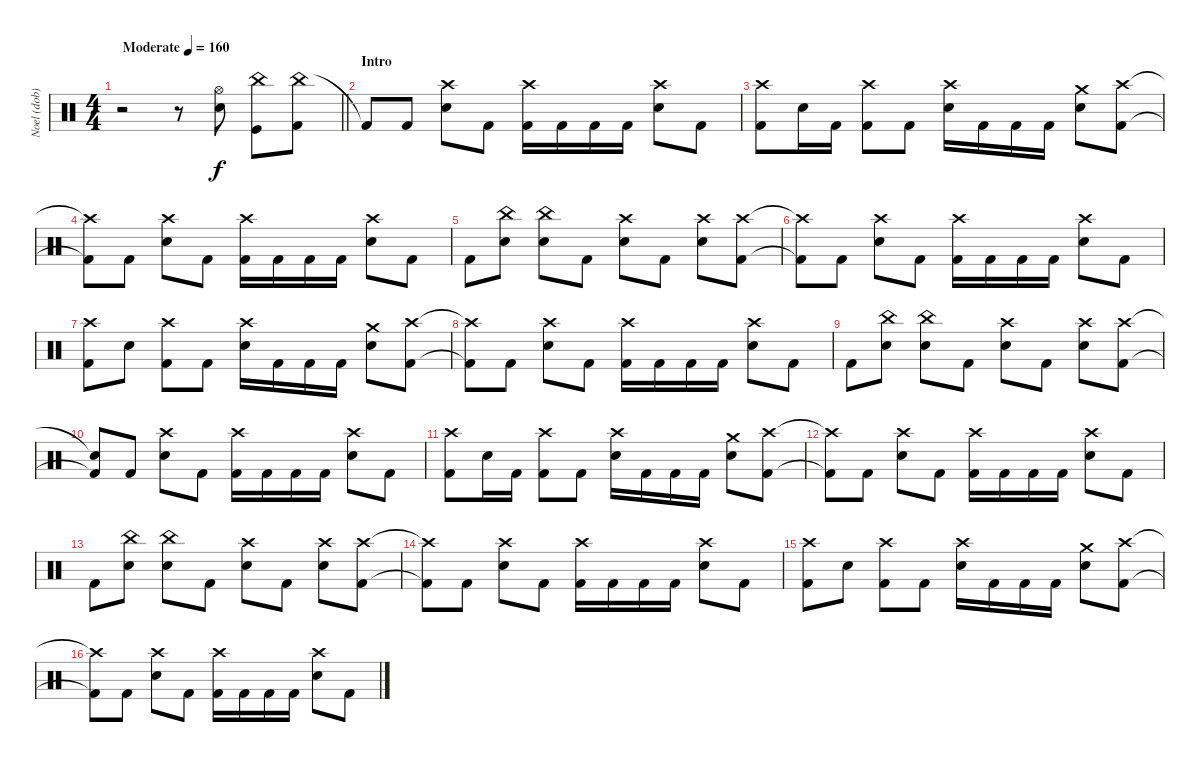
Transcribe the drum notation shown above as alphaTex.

\track ("Noel (dob)" "Noel (dob)") {instrument percussion}
\staff {score}
\articulation defaults
\ts (4 4)
\tempo (160 "Moderate")
\clef neutral
\barLineRight lightlight
\ks c
r.2{dy f} r.8 ("Snare (hit) 2" "Hi-Hat (open)").8 ("Kick (hit)" "China (hit)").8 ("China (hit)" "Kick (hit) 2").8 |
\section ("" "Intro")
"Kick (hit) 2"{t}.8 "Kick (hit) 2".8 ("Crash high (hit)" "Electric Snare (hit)").8 "Kick (hit) 2".8 ("Crash high (hit)" "Kick (hit) 2").16 "Kick (hit) 2".16 "Kick (hit) 2".16 "Kick (hit) 2".16 ("Crash high (hit)" "Electric Snare (hit)").8 "Kick (hit) 2".8 |
("Crash high (hit)" "Kick (hit) 2").8 "Electric Snare (hit)".16 "Kick (hit) 2".16 ("Crash high (hit)" "Kick (hit) 2").8 "Kick (hit) 2".8 ("Crash high (hit)" "Electric Snare (hit)").16 "Kick (hit) 2".16 "Kick (hit) 2".16 "Kick (hit) 2".16 ("Crash medium (hit)" "Electric Snare (hit)").8 ("Crash high (hit)" "Kick (hit) 2").8 |
("Crash high (hit)"{t} "Kick (hit) 2"{t}).8 "Kick (hit) 2".8 ("Crash high (hit)" "Electric Snare (hit)").8 "Kick (hit) 2".8 ("Crash high (hit)" "Kick (hit) 2").16 "Kick (hit) 2".16 "Kick (hit) 2".16 "Kick (hit) 2".16 ("Crash high (hit)" "Electric Snare (hit)").8 "Kick (hit) 2".8 |
"Kick (hit) 2".8 ("China (hit)" "Electric Snare (hit)").8 ("China (hit)" "Electric Snare (hit)").8 "Kick (hit) 2".8 ("Crash high (hit)" "Electric Snare (hit)").8 "Kick (hit) 2".8 ("Crash high (hit)" "Electric Snare (hit)").8 ("Crash high (hit)" "Kick (hit) 2").8 |
("Crash high (hit)"{t} "Kick (hit) 2"{t}).8 "Kick (hit) 2".8 ("Crash high (hit)" "Electric Snare (hit)").8 "Kick (hit) 2".8 ("Crash high (hit)" "Kick (hit) 2").16 "Kick (hit) 2".16 "Kick (hit) 2".16 "Kick (hit) 2".16 ("Crash high (hit)" "Electric Snare (hit)").8 "Kick (hit) 2".8 |
("Crash high (hit)" "Kick (hit) 2").8 "Electric Snare (hit)".8 ("Crash high (hit)" "Kick (hit) 2").8 "Kick (hit) 2".8 ("Crash high (hit)" "Electric Snare (hit)").16 "Kick (hit) 2".16 "Kick (hit) 2".16 "Kick (hit) 2".16 ("Crash medium (hit)" "Electric Snare (hit)").8 ("Crash high (hit)" "Kick (hit) 2").8 |
("Crash high (hit)"{t} "Kick (hit) 2"{t}).8 "Kick (hit) 2".8 ("Crash high (hit)" "Electric Snare (hit)").8 "Kick (hit) 2".8 ("Crash high (hit)" "Kick (hit) 2").16 "Kick (hit) 2".16 "Kick (hit) 2".16 "Kick (hit) 2".16 ("Crash high (hit)" "Electric Snare (hit)").8 "Kick (hit) 2".8 |
"Kick (hit) 2".8 ("Electric Snare (hit)" "China (hit)").8 ("Electric Snare (hit)" "China (hit)").8 "Kick (hit) 2".8 ("Crash high (hit)" "Electric Snare (hit)").8 "Kick (hit) 2".8 ("Crash high (hit)" "Electric Snare (hit)").8 ("Crash high (hit)" "Kick (hit) 2").8 |
("Snare (hit)"{t} "Kick (hit) 2"{t}).8 "Kick (hit) 2".8 ("Crash high (hit)" "Electric Snare (hit)").8 "Kick (hit) 2".8 ("Crash high (hit)" "Kick (hit) 2").16 "Kick (hit) 2".16 "Kick (hit) 2".16 "Kick (hit) 2".16 ("Crash high (hit)" "Electric Snare (hit)").8 "Kick (hit) 2".8 |
("Crash high (hit)" "Kick (hit) 2").8 "Electric Snare (hit)".16 "Kick (hit) 2".16 ("Crash high (hit)" "Kick (hit) 2").8 "Kick (hit) 2".8 ("Crash high (hit)" "Electric Snare (hit)").16 "Kick (hit) 2".16 "Kick (hit) 2".16 "Kick (hit) 2".16 ("Crash medium (hit)" "Electric Snare (hit)").8 ("Crash high (hit)" "Kick (hit) 2").8 |
("Crash high (hit)"{t} "Kick (hit) 2"{t}).8 "Kick (hit) 2".8 ("Crash high (hit)" "Electric Snare (hit)").8 "Kick (hit) 2".8 ("Crash high (hit)" "Kick (hit) 2").16 "Kick (hit) 2".16 "Kick (hit) 2".16 "Kick (hit) 2".16 ("Crash high (hit)" "Electric Snare (hit)").8 "Kick (hit) 2".8 |
"Kick (hit) 2".8 ("China (hit)" "Electric Snare (hit)").8 ("China (hit)" "Electric Snare (hit)").8 "Kick (hit) 2".8 ("Crash high (hit)" "Electric Snare (hit)").8 "Kick (hit) 2".8 ("Crash high (hit)" "Electric Snare (hit)").8 ("Crash high (hit)" "Kick (hit) 2").8 |
("Crash high (hit)"{t} "Kick (hit) 2"{t}).8 "Kick (hit) 2".8 ("Crash high (hit)" "Electric Snare (hit)").8 "Kick (hit) 2".8 ("Crash high (hit)" "Kick (hit) 2").16 "Kick (hit) 2".16 "Kick (hit) 2".16 "Kick (hit) 2".16 ("Crash high (hit)" "Electric Snare (hit)").8 "Kick (hit) 2".8 |
("Crash high (hit)" "Kick (hit) 2").8 "Electric Snare (hit)".8 ("Crash high (hit)" "Kick (hit) 2").8 "Kick (hit) 2".8 ("Crash high (hit)" "Electric Snare (hit)").16 "Kick (hit) 2".16 "Kick (hit) 2".16 "Kick (hit) 2".16 ("Crash medium (hit)" "Electric Snare (hit)").8 ("Crash high (hit)" "Kick (hit) 2").8 |
("Crash high (hit)"{t} "Kick (hit) 2"{t}).8 "Kick (hit) 2".8 ("Crash high (hit)" "Electric Snare (hit)").8 "Kick (hit) 2".8 ("Crash high (hit)" "Kick (hit) 2").16 "Kick (hit) 2".16 "Kick (hit) 2".16 "Kick (hit) 2".16 ("Crash high (hit)" "Electric Snare (hit)").8 "Kick (hit) 2".8
